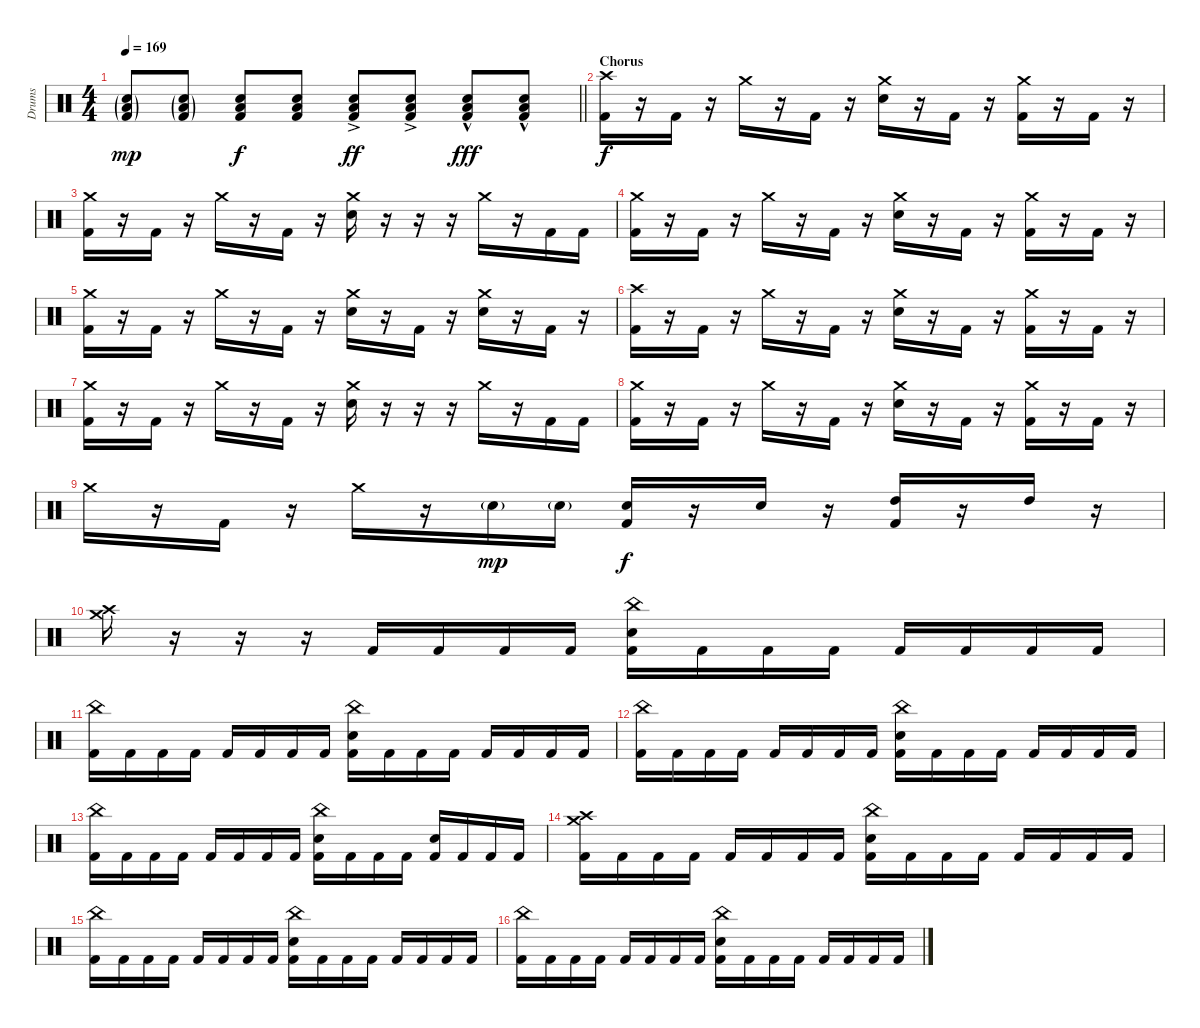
\track ("Drums" "Drums") {instrument percussion}
\staff {score}
\articulation defaults
\ts (4 4)
\tempo 169
\clef neutral
\barLineRight lightlight
\ks c
("Low Tom (hit)"{g} "Snare (hit) 2"{g} "Kick (hit) 2"{g}).8{dy mp} ("Low Tom (hit)"{g} "Snare (hit) 2"{g} "Kick (hit) 2"{g}).8 ("Low Tom (hit)" "Snare (hit) 2" "Kick (hit) 2").8{dy f} ("Low Tom (hit)" "Snare (hit) 2" "Kick (hit) 2").8 ("Low Tom (hit)"{ac} "Snare (hit) 2"{ac} "Kick (hit) 2"{ac}).8{dy ff} ("Low Tom (hit)"{ac} "Snare (hit) 2"{ac} "Kick (hit) 2"{ac}).8 ("Low Tom (hit)"{hac} "Snare (hit) 2"{hac} "Kick (hit) 2"{hac}).8{dy fff} ("Low Tom (hit)"{hac} "Snare (hit) 2"{hac} "Kick (hit) 2"{hac}).8 |
\section ("" "Chorus")
("Crash high (hit)" "Kick (hit) 2").16{dy f} r.16 "Kick (hit) 2".16 r.16 "Crash medium (hit)".16 r.16 "Kick (hit) 2".16 r.16 ("Crash medium (hit)" "Snare (hit) 2").16 r.16 "Kick (hit) 2".16 r.16 ("Crash medium (hit)" "Kick (hit) 2").16 r.16 "Kick (hit) 2".16 r.16 |
("Crash medium (hit)" "Kick (hit) 2").16 r.16 "Kick (hit) 2".16 r.16 "Crash medium (hit)".16 r.16 "Kick (hit) 2".16 r.16 ("Crash medium (hit)" "Snare (hit) 2").16 r.16 r.16 r.16 "Crash medium (hit)".16 r.16 "Kick (hit) 2".16 "Kick (hit) 2".16 |
("Crash medium (hit)" "Kick (hit) 2").16 r.16 "Kick (hit) 2".16 r.16 "Crash medium (hit)".16 r.16 "Kick (hit) 2".16 r.16 ("Crash medium (hit)" "Snare (hit) 2").16 r.16 "Kick (hit) 2".16 r.16 ("Crash medium (hit)" "Kick (hit) 2").16 r.16 "Kick (hit) 2".16 r.16 |
("Crash medium (hit)" "Kick (hit) 2").16 r.16 "Kick (hit) 2".16 r.16 "Crash medium (hit)".16 r.16 "Kick (hit) 2".16 r.16 ("Crash medium (hit)" "Snare (hit) 2").16 r.16 "Kick (hit) 2".16 r.16 ("Crash medium (hit)" "Snare (hit) 2").16 r.16 "Kick (hit) 2".16 r.16 |
("Crash high (hit)" "Kick (hit) 2").16 r.16 "Kick (hit) 2".16 r.16 "Crash medium (hit)".16 r.16 "Kick (hit) 2".16 r.16 ("Crash medium (hit)" "Snare (hit) 2").16 r.16 "Kick (hit) 2".16 r.16 ("Crash medium (hit)" "Kick (hit) 2").16 r.16 "Kick (hit) 2".16 r.16 |
("Crash medium (hit)" "Kick (hit) 2").16 r.16 "Kick (hit) 2".16 r.16 "Crash medium (hit)".16 r.16 "Kick (hit) 2".16 r.16 ("Crash medium (hit)" "Snare (hit) 2").16 r.16 r.16 r.16 "Crash medium (hit)".16 r.16 "Kick (hit) 2".16 "Kick (hit) 2".16 |
("Crash medium (hit)" "Kick (hit) 2").16 r.16 "Kick (hit) 2".16 r.16 "Crash medium (hit)".16 r.16 "Kick (hit) 2".16 r.16 ("Crash medium (hit)" "Snare (hit) 2").16 r.16 "Kick (hit) 2".16 r.16 ("Crash medium (hit)" "Kick (hit) 2").16 r.16 "Kick (hit) 2".16 r.16 |
"Crash medium (hit)".16 r.16 "Kick (hit) 2".16 r.16 "Crash medium (hit)".16 r.16 "Snare (hit) 2"{g}.16{dy mp} "Snare (hit) 2"{g}.16 ("Snare (hit) 2" "Kick (hit) 2").16{dy f} r.16 "Snare (hit) 2".16 r.16 ("High Tom (hit)" "Kick (hit) 2").16 r.16 "High Tom (hit)".16 r.16 |
("Crash high (hit)" "Crash medium (hit)").16 r.16 r.16 r.16 "Kick (hit) 2".16 "Kick (hit) 2".16 "Kick (hit) 2".16 "Kick (hit) 2".16 ("China (hit)" "Snare (hit) 2" "Kick (hit) 2").16 "Kick (hit) 2".16 "Kick (hit) 2".16 "Kick (hit) 2".16 "Kick (hit) 2".16 "Kick (hit) 2".16 "Kick (hit) 2".16 "Kick (hit) 2".16 |
("China (hit)" "Kick (hit) 2").16 "Kick (hit) 2".16 "Kick (hit) 2".16 "Kick (hit) 2".16 "Kick (hit) 2".16 "Kick (hit) 2".16 "Kick (hit) 2".16 "Kick (hit) 2".16 ("China (hit)" "Snare (hit) 2" "Kick (hit) 2").16 "Kick (hit) 2".16 "Kick (hit) 2".16 "Kick (hit) 2".16 "Kick (hit) 2".16 "Kick (hit) 2".16 "Kick (hit) 2".16 "Kick (hit) 2".16 |
("China (hit)" "Kick (hit) 2").16 "Kick (hit) 2".16 "Kick (hit) 2".16 "Kick (hit) 2".16 "Kick (hit) 2".16 "Kick (hit) 2".16 "Kick (hit) 2".16 "Kick (hit) 2".16 ("China (hit)" "Snare (hit) 2" "Kick (hit) 2").16 "Kick (hit) 2".16 "Kick (hit) 2".16 "Kick (hit) 2".16 "Kick (hit) 2".16 "Kick (hit) 2".16 "Kick (hit) 2".16 "Kick (hit) 2".16 |
("China (hit)" "Kick (hit) 2").16 "Kick (hit) 2".16 "Kick (hit) 2".16 "Kick (hit) 2".16 "Kick (hit) 2".16 "Kick (hit) 2".16 "Kick (hit) 2".16 "Kick (hit) 2".16 ("China (hit)" "Snare (hit) 2" "Kick (hit) 2").16 "Kick (hit) 2".16 "Kick (hit) 2".16 "Kick (hit) 2".16 ("Snare (hit) 2" "Kick (hit) 2").16 "Kick (hit) 2".16 "Kick (hit) 2".16 "Kick (hit) 2".16 |
("Crash medium (hit)" "Crash high (hit)" "Kick (hit) 2").16 "Kick (hit) 2".16 "Kick (hit) 2".16 "Kick (hit) 2".16 "Kick (hit) 2".16 "Kick (hit) 2".16 "Kick (hit) 2".16 "Kick (hit) 2".16 ("China (hit)" "Snare (hit) 2" "Kick (hit) 2").16 "Kick (hit) 2".16 "Kick (hit) 2".16 "Kick (hit) 2".16 "Kick (hit) 2".16 "Kick (hit) 2".16 "Kick (hit) 2".16 "Kick (hit) 2".16 |
("China (hit)" "Kick (hit) 2").16 "Kick (hit) 2".16 "Kick (hit) 2".16 "Kick (hit) 2".16 "Kick (hit) 2".16 "Kick (hit) 2".16 "Kick (hit) 2".16 "Kick (hit) 2".16 ("China (hit)" "Snare (hit) 2" "Kick (hit) 2").16 "Kick (hit) 2".16 "Kick (hit) 2".16 "Kick (hit) 2".16 "Kick (hit) 2".16 "Kick (hit) 2".16 "Kick (hit) 2".16 "Kick (hit) 2".16 |
("China (hit)" "Kick (hit) 2").16 "Kick (hit) 2".16 "Kick (hit) 2".16 "Kick (hit) 2".16 "Kick (hit) 2".16 "Kick (hit) 2".16 "Kick (hit) 2".16 "Kick (hit) 2".16 ("China (hit)" "Snare (hit) 2" "Kick (hit) 2").16 "Kick (hit) 2".16 "Kick (hit) 2".16 "Kick (hit) 2".16 "Kick (hit) 2".16 "Kick (hit) 2".16 "Kick (hit) 2".16 "Kick (hit) 2".16
